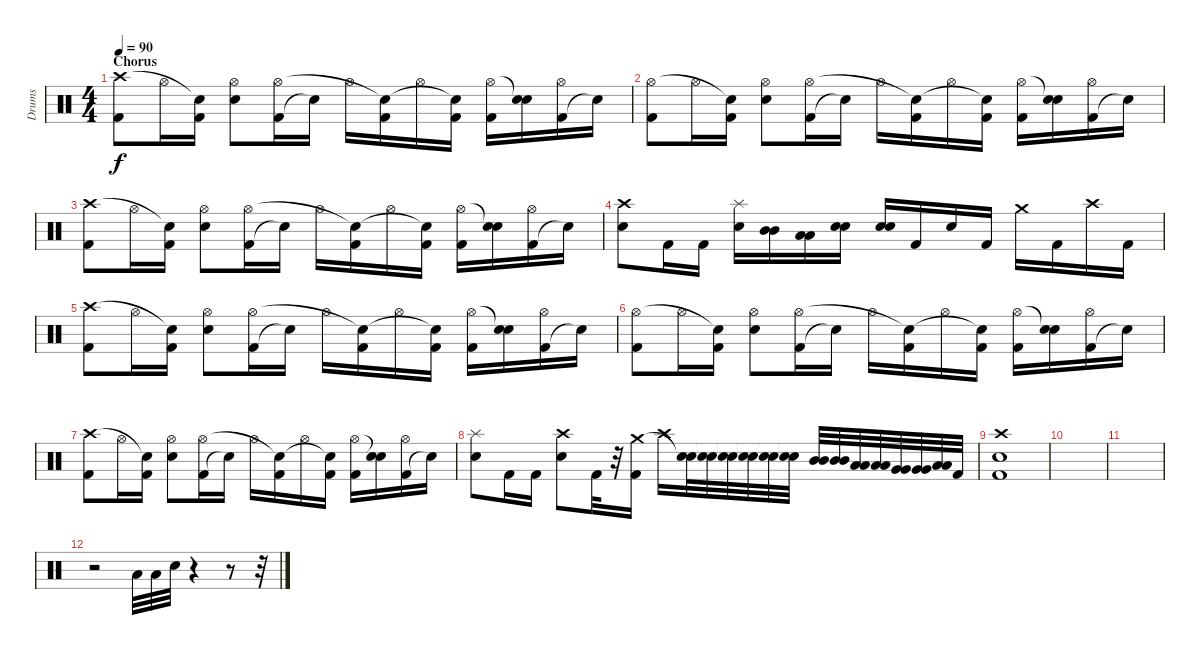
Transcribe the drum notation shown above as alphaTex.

\track ("Drums" "Drums") {instrument percussion}
\staff {score}
\articulation defaults
\ts (4 4)
\section ("" "Chorus")
\tempo 90
\clef neutral
\ks c
("Kick (hit) 2" "Crash high (hit)").8{dy f} "Hi-Hat (open)".16 ("Kick (hit) 2" "Snare (hit)"{t}).16 ("Snare (hit) 2" "Hi-Hat (open)").8 ("Kick (hit) 2" "Hi-Hat (open)").16 "Snare (hit)"{t}.16 "Hi-Hat (open)".16 ("Kick (hit) 2" "Snare (hit)"{t}).16 "Hi-Hat (open)".16 ("Kick (hit) 2" "Snare (hit)"{t}).16 ("Kick (hit) 2" "Hi-Hat (open)").16 ("Snare (hit) 2" "Snare (hit)"{t}).16 ("Kick (hit) 2" "Hi-Hat (open)").16 "Snare (hit)"{t}.16 |
("Kick (hit) 2" "Hi-Hat (open)").8 "Hi-Hat (open)".16 ("Kick (hit) 2" "Snare (hit)"{t}).16 ("Snare (hit) 2" "Hi-Hat (open)").8 ("Kick (hit) 2" "Hi-Hat (open)").16 "Snare (hit)"{t}.16 "Hi-Hat (open)".16 ("Kick (hit) 2" "Snare (hit)"{t}).16 "Hi-Hat (open)".16 ("Kick (hit) 2" "Snare (hit)"{t}).16 ("Kick (hit) 2" "Hi-Hat (open)").16 ("Snare (hit) 2" "Snare (hit)"{t}).16 ("Kick (hit) 2" "Hi-Hat (open)").16 "Snare (hit)"{t}.16 |
("Kick (hit) 2" "Crash high (hit)").8 "Hi-Hat (open)".16 ("Kick (hit) 2" "Snare (hit)"{t}).16 ("Snare (hit) 2" "Hi-Hat (open)").8 ("Kick (hit) 2" "Hi-Hat (open)").16 "Snare (hit)"{t}.16 "Hi-Hat (open)".16 ("Kick (hit) 2" "Snare (hit)"{t}).16 "Hi-Hat (open)".16 ("Kick (hit) 2" "Snare (hit)"{t}).16 ("Kick (hit) 2" "Hi-Hat (open)").16 ("Snare (hit) 2" "Snare (hit)"{t}).16 ("Kick (hit) 2" "Hi-Hat (open)").16 "Snare (hit)"{t}.16 |
("Electric Snare (hit)" "Crash high (hit)").8 "Kick (hit) 2".16 "Kick (hit) 2".16 ("Electric Snare (hit)" "Splash (hit)").16 ("Mid Tom (hit)" "Mid Tom (hit)").16 ("Low Tom (hit)" "Low Tom (hit)").16 ("Electric Snare (hit)" "Electric Snare (hit)").16 ("Snare (hit) 2" "Snare (hit) 2").16 "Kick (hit) 2".16 "Electric Snare (hit)".16 "Kick (hit) 2".16 "Crash medium (hit)".16 "Kick (hit) 2".16 "Crash high (hit)".16 "Kick (hit) 2".16 |
("Kick (hit) 2" "Crash high (hit)").8 "Hi-Hat (open)".16 ("Kick (hit) 2" "Snare (hit)"{t}).16 ("Snare (hit) 2" "Hi-Hat (open)").8 ("Kick (hit) 2" "Hi-Hat (open)").16 "Snare (hit)"{t}.16 "Hi-Hat (open)".16 ("Kick (hit) 2" "Snare (hit)"{t}).16 "Hi-Hat (open)".16 ("Kick (hit) 2" "Snare (hit)"{t}).16 ("Kick (hit) 2" "Hi-Hat (open)").16 ("Snare (hit) 2" "Snare (hit)"{t}).16 ("Kick (hit) 2" "Hi-Hat (open)").16 "Snare (hit)"{t}.16 |
("Kick (hit) 2" "Hi-Hat (open)").8 "Hi-Hat (open)".16 ("Kick (hit) 2" "Snare (hit)"{t}).16 ("Snare (hit) 2" "Hi-Hat (open)").8 ("Kick (hit) 2" "Hi-Hat (open)").16 "Snare (hit)"{t}.16 "Hi-Hat (open)".16 ("Kick (hit) 2" "Snare (hit)"{t}).16 "Hi-Hat (open)".16 ("Kick (hit) 2" "Snare (hit)"{t}).16 ("Kick (hit) 2" "Hi-Hat (open)").16 ("Snare (hit) 2" "Snare (hit)"{t}).16 ("Kick (hit) 2" "Hi-Hat (open)").16 "Snare (hit)"{t}.16 |
("Kick (hit) 2" "Crash high (hit)").8 "Hi-Hat (open)".16 ("Kick (hit) 2" "Snare (hit)"{t}).16 ("Snare (hit) 2" "Hi-Hat (open)").8 ("Kick (hit) 2" "Hi-Hat (open)").16 "Snare (hit)"{t}.16 "Hi-Hat (open)".16 ("Kick (hit) 2" "Snare (hit)"{t}).16 "Hi-Hat (open)".16 ("Kick (hit) 2" "Snare (hit)"{t}).16 ("Kick (hit) 2" "Hi-Hat (open)").16 ("Snare (hit) 2" "Snare (hit)"{t}).16 ("Kick (hit) 2" "Hi-Hat (open)").16 "Snare (hit)"{t}.16 |
("Electric Snare (hit)" "Splash (hit)").8 "Kick (hit) 2".16 "Kick (hit) 2".16 ("Electric Snare (hit)" "Crash high (hit)").8 "Kick (hit) 2".32 r.32 ("Kick (hit) 2" "Crash medium (hit)").16 "Crash high (hit)".16 ("Electric Snare (hit)" "Snare (hit)"{t}).32 ("Electric Snare (hit)" "Snare (hit)"{t}).32 ("Electric Snare (hit)" "Snare (hit)"{t}).32 ("Electric Snare (hit)" "Snare (hit)"{t}).32 ("Electric Snare (hit)" "Snare (hit)"{t}).32 ("Electric Snare (hit)" "Snare (hit)"{t}).32 ("Mid Tom (hit)" "Mid Tom (hit)").32 ("Mid Tom (hit)" "Mid Tom (hit)").32 ("Low Tom (hit)" "Low Tom (hit)").32 ("Low Tom (hit)" "Low Tom (hit)").32 ("Very Low Tom (hit)" "Very Low Tom (hit)").32 ("Very Low Tom (hit)" "Very Low Tom (hit)").32 ("Low Floor Tom (hit)" "Low Floor Tom (hit)").32 "Kick (hit) 2".32 |
("Kick (hit) 2" "Electric Snare (hit)" "Crash high (hit)").1 |
|
|
r.2 "Low Floor Tom (hit)".32 "Low Tom (hit)".32 "Electric Snare (hit)".32 r.4 r.8 r.32
